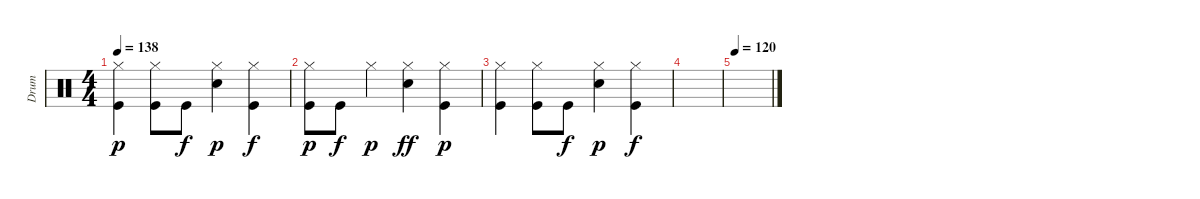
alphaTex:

\track ("Drum" "Drum") {instrument percussion}
\staff {score}
\articulation defaults
\ts (4 4)
\tempo 138
\clef neutral
\ks c
("Kick (hit)" "Hi-Hat (closed)").4{dy p} ("Kick (hit)" "Hi-Hat (closed)").8 "Kick (hit)".8{dy f} ("Snare (hit) 2" "Hi-Hat (closed)").4{dy p} ("Kick (hit)" "Hi-Hat (closed)").4{dy f} |
("Kick (hit)" "Hi-Hat (closed)").8{dy p} "Kick (hit)".8{dy f} "Hi-Hat (closed)".4{dy p} ("Snare (hit) 2" "Hi-Hat (closed)").4{dy ff} ("Kick (hit)" "Hi-Hat (closed)").4{dy p} |
("Kick (hit)" "Hi-Hat (closed)").4 ("Kick (hit)" "Hi-Hat (closed)").8 "Kick (hit)".8{dy f} ("Snare (hit) 2" "Hi-Hat (closed)").4{dy p} ("Kick (hit)" "Hi-Hat (closed)").4{dy f} |
|
\tempo 120
